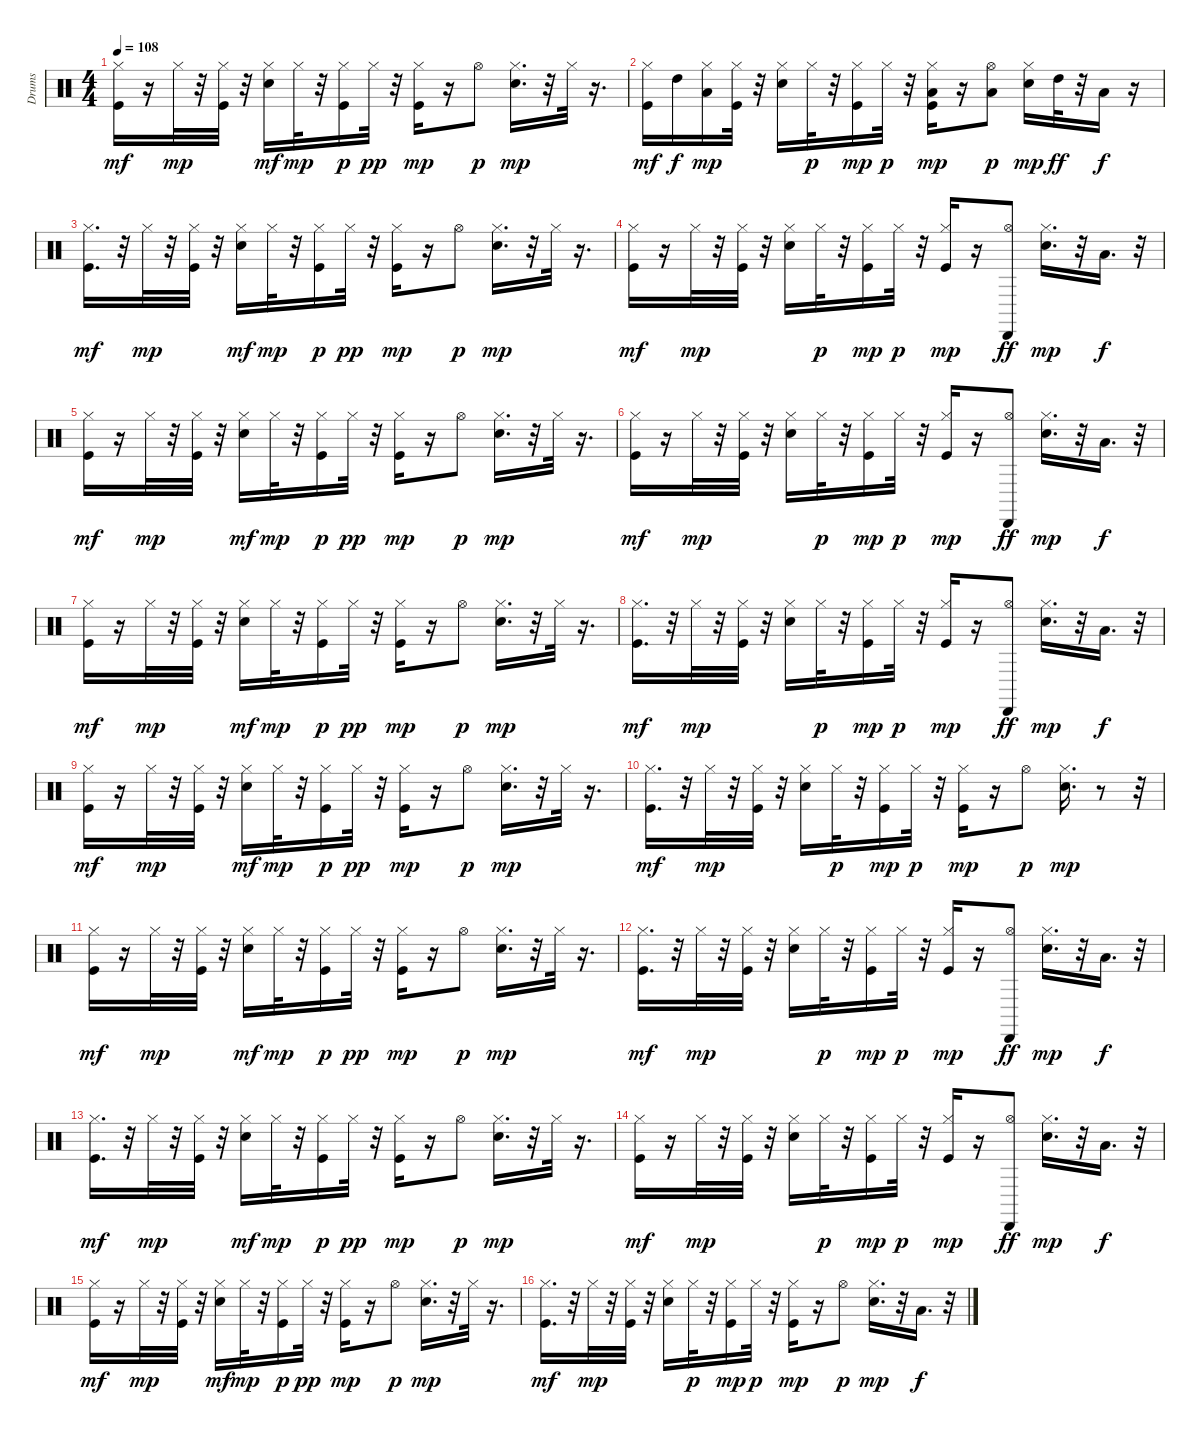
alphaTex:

\track ("Drums" "Drums") {instrument percussion}
\staff {score}
\articulation defaults
\ts (4 4)
\tempo 108
\clef neutral
\ks c
("Hi-Hat (closed)" "Kick (hit)").16{dy mf} r.16 "Hi-Hat (closed)".32{dy mp} r.32 ("Hi-Hat (closed)" "Kick (hit)").32 r.32 ("Hi-Hat (closed)" "Snare (hit) 2").16{dy mf} "Hi-Hat (closed)".32{dy mp} r.32 ("Hi-Hat (closed)" "Kick (hit)").16{dy p} "Hi-Hat (closed)".32{dy pp} r.32 ("Hi-Hat (closed)" "Kick (hit)").16{dy mp} r.16 "Hi-Hat (open)".8{dy p} ("Hi-Hat (closed)" "Snare (hit) 2").16{d dy mp} r.32 "Hi-Hat (closed)".32 r.16{d} |
("Hi-Hat (closed)" "Kick (hit)").16{dy mf} "High Tom (hit)".16{dy f} ("Hi-Hat (closed)" "Low Tom (hit)").16{dy mp} ("Hi-Hat (closed)" "Kick (hit)").32 r.32 ("Hi-Hat (closed)" "Snare (hit) 2").16 "Hi-Hat (closed)".32{dy p} r.32 ("Hi-Hat (closed)" "Kick (hit)").16{dy mp} "Hi-Hat (closed)".32{dy p} r.32 ("Hi-Hat (closed)" "Low Tom (hit)" "Kick (hit)").16{dy mp} r.16 ("Hi-Hat (open)" "Low Tom (hit)").8{dy p} ("Snare (hit) 2" "Hi-Hat (closed)").16{dy mp} "High Tom (hit)".32{dy ff} r.32 "Low Tom (hit)".16{dy f} r.16 |
("Hi-Hat (closed)" "Kick (hit)").16{d dy mf} r.32 "Hi-Hat (closed)".32{dy mp} r.32 ("Hi-Hat (closed)" "Kick (hit)").32 r.32 ("Hi-Hat (closed)" "Snare (hit) 2").16{dy mf} "Hi-Hat (closed)".32{dy mp} r.32 ("Hi-Hat (closed)" "Kick (hit)").16{dy p} "Hi-Hat (closed)".32{dy pp} r.32 ("Hi-Hat (closed)" "Kick (hit)").16{dy mp} r.16 "Hi-Hat (open)".8{dy p} ("Hi-Hat (closed)" "Snare (hit) 2").16{d dy mp} r.32 "Hi-Hat (closed)".32 r.16{d} |
("Hi-Hat (closed)" "Kick (hit)").16{dy mf} r.16 "Hi-Hat (closed)".32{dy mp} r.32 ("Hi-Hat (closed)" "Kick (hit)").32 r.32 ("Hi-Hat (closed)" "Snare (hit) 2").16 "Hi-Hat (closed)".32{dy p} r.32 ("Hi-Hat (closed)" "Kick (hit)").16{dy mp} "Hi-Hat (closed)".32{dy p} r.32 ("Hi-Hat (closed)" "Kick (hit)").16{dy mp} r.16 ("Hi-Hat (open)" "Cabasa (hit)").8{dy ff} ("Hi-Hat (closed)" "Snare (hit) 2").16{d dy mp} r.32 "Low Floor Tom (hit)".16{d dy f} r.32 |
("Hi-Hat (closed)" "Kick (hit)").16{dy mf} r.16 "Hi-Hat (closed)".32{dy mp} r.32 ("Hi-Hat (closed)" "Kick (hit)").32 r.32 ("Hi-Hat (closed)" "Snare (hit) 2").16{dy mf} "Hi-Hat (closed)".32{dy mp} r.32 ("Hi-Hat (closed)" "Kick (hit)").16{dy p} "Hi-Hat (closed)".32{dy pp} r.32 ("Hi-Hat (closed)" "Kick (hit)").16{dy mp} r.16 "Hi-Hat (open)".8{dy p} ("Hi-Hat (closed)" "Snare (hit) 2").16{d dy mp} r.32 "Hi-Hat (closed)".32 r.16{d} |
("Hi-Hat (closed)" "Kick (hit)").16{dy mf} r.16 "Hi-Hat (closed)".32{dy mp} r.32 ("Hi-Hat (closed)" "Kick (hit)").32 r.32 ("Hi-Hat (closed)" "Snare (hit) 2").16 "Hi-Hat (closed)".32{dy p} r.32 ("Hi-Hat (closed)" "Kick (hit)").16{dy mp} "Hi-Hat (closed)".32{dy p} r.32 ("Hi-Hat (closed)" "Kick (hit)").16{dy mp} r.16 ("Hi-Hat (open)" "Cabasa (hit)").8{dy ff} ("Hi-Hat (closed)" "Snare (hit) 2").16{d dy mp} r.32 "Low Floor Tom (hit)".16{d dy f} r.32 |
("Hi-Hat (closed)" "Kick (hit)").16{dy mf} r.16 "Hi-Hat (closed)".32{dy mp} r.32 ("Hi-Hat (closed)" "Kick (hit)").32 r.32 ("Hi-Hat (closed)" "Snare (hit) 2").16{dy mf} "Hi-Hat (closed)".32{dy mp} r.32 ("Hi-Hat (closed)" "Kick (hit)").16{dy p} "Hi-Hat (closed)".32{dy pp} r.32 ("Hi-Hat (closed)" "Kick (hit)").16{dy mp} r.16 "Hi-Hat (open)".8{dy p} ("Hi-Hat (closed)" "Snare (hit) 2").16{d dy mp} r.32 "Hi-Hat (closed)".32 r.16{d} |
("Hi-Hat (closed)" "Kick (hit)").16{d dy mf} r.32 "Hi-Hat (closed)".32{dy mp} r.32 ("Hi-Hat (closed)" "Kick (hit)").32 r.32 ("Hi-Hat (closed)" "Snare (hit) 2").16 "Hi-Hat (closed)".32{dy p} r.32 ("Hi-Hat (closed)" "Kick (hit)").16{dy mp} "Hi-Hat (closed)".32{dy p} r.32 ("Hi-Hat (closed)" "Kick (hit)").16{dy mp} r.16 ("Hi-Hat (open)" "Cabasa (hit)").8{dy ff} ("Hi-Hat (closed)" "Snare (hit) 2").16{d dy mp} r.32 "Low Floor Tom (hit)".16{d dy f} r.32 |
("Hi-Hat (closed)" "Kick (hit)").16{dy mf} r.16 "Hi-Hat (closed)".32{dy mp} r.32 ("Hi-Hat (closed)" "Kick (hit)").32 r.32 ("Hi-Hat (closed)" "Snare (hit) 2").16{dy mf} "Hi-Hat (closed)".32{dy mp} r.32 ("Hi-Hat (closed)" "Kick (hit)").16{dy p} "Hi-Hat (closed)".32{dy pp} r.32 ("Hi-Hat (closed)" "Kick (hit)").16{dy mp} r.16 "Hi-Hat (open)".8{dy p} ("Hi-Hat (closed)" "Snare (hit) 2").16{d dy mp} r.32 "Hi-Hat (closed)".32 r.16{d} |
("Hi-Hat (closed)" "Kick (hit)").16{d dy mf} r.32 "Hi-Hat (closed)".32{dy mp} r.32 ("Hi-Hat (closed)" "Kick (hit)").32 r.32 ("Hi-Hat (closed)" "Snare (hit) 2").16 "Hi-Hat (closed)".32{dy p} r.32 ("Hi-Hat (closed)" "Kick (hit)").16{dy mp} "Hi-Hat (closed)".32{dy p} r.32 ("Hi-Hat (closed)" "Kick (hit)").16{dy mp} r.16 "Hi-Hat (open)".8{dy p} ("Hi-Hat (closed)" "Snare (hit) 2").16{d dy mp} r.8 r.32 |
("Hi-Hat (closed)" "Kick (hit)").16{dy mf} r.16 "Hi-Hat (closed)".32{dy mp} r.32 ("Hi-Hat (closed)" "Kick (hit)").32 r.32 ("Hi-Hat (closed)" "Snare (hit) 2").16{dy mf} "Hi-Hat (closed)".32{dy mp} r.32 ("Hi-Hat (closed)" "Kick (hit)").16{dy p} "Hi-Hat (closed)".32{dy pp} r.32 ("Hi-Hat (closed)" "Kick (hit)").16{dy mp} r.16 "Hi-Hat (open)".8{dy p} ("Hi-Hat (closed)" "Snare (hit) 2").16{d dy mp} r.32 "Hi-Hat (closed)".32 r.16{d} |
("Hi-Hat (closed)" "Kick (hit)").16{d dy mf} r.32 "Hi-Hat (closed)".32{dy mp} r.32 ("Hi-Hat (closed)" "Kick (hit)").32 r.32 ("Hi-Hat (closed)" "Snare (hit) 2").16 "Hi-Hat (closed)".32{dy p} r.32 ("Hi-Hat (closed)" "Kick (hit)").16{dy mp} "Hi-Hat (closed)".32{dy p} r.32 ("Hi-Hat (closed)" "Kick (hit)").16{dy mp} r.16 ("Hi-Hat (open)" "Cabasa (hit)").8{dy ff} ("Hi-Hat (closed)" "Snare (hit) 2").16{d dy mp} r.32 "Low Floor Tom (hit)".16{d dy f} r.32 |
("Hi-Hat (closed)" "Kick (hit)").16{d dy mf} r.32 "Hi-Hat (closed)".32{dy mp} r.32 ("Hi-Hat (closed)" "Kick (hit)").32 r.32 ("Hi-Hat (closed)" "Snare (hit) 2").16{dy mf} "Hi-Hat (closed)".32{dy mp} r.32 ("Hi-Hat (closed)" "Kick (hit)").16{dy p} "Hi-Hat (closed)".32{dy pp} r.32 ("Hi-Hat (closed)" "Kick (hit)").16{dy mp} r.16 "Hi-Hat (open)".8{dy p} ("Hi-Hat (closed)" "Snare (hit) 2").16{d dy mp} r.32 "Hi-Hat (closed)".32 r.16{d} |
("Hi-Hat (closed)" "Kick (hit)").16{dy mf} r.16 "Hi-Hat (closed)".32{dy mp} r.32 ("Hi-Hat (closed)" "Kick (hit)").32 r.32 ("Hi-Hat (closed)" "Snare (hit) 2").16 "Hi-Hat (closed)".32{dy p} r.32 ("Hi-Hat (closed)" "Kick (hit)").16{dy mp} "Hi-Hat (closed)".32{dy p} r.32 ("Hi-Hat (closed)" "Kick (hit)").16{dy mp} r.16 ("Hi-Hat (open)" "Cabasa (hit)").8{dy ff} ("Hi-Hat (closed)" "Snare (hit) 2").16{d dy mp} r.32 "Low Floor Tom (hit)".16{d dy f} r.32 |
("Hi-Hat (closed)" "Kick (hit)").16{dy mf} r.16 "Hi-Hat (closed)".32{dy mp} r.32 ("Hi-Hat (closed)" "Kick (hit)").32 r.32 ("Hi-Hat (closed)" "Snare (hit) 2").16{dy mf} "Hi-Hat (closed)".32{dy mp} r.32 ("Hi-Hat (closed)" "Kick (hit)").16{dy p} "Hi-Hat (closed)".32{dy pp} r.32 ("Hi-Hat (closed)" "Kick (hit)").16{dy mp} r.16 "Hi-Hat (open)".8{dy p} ("Hi-Hat (closed)" "Snare (hit) 2").16{d dy mp} r.32 "Hi-Hat (closed)".32 r.16{d} |
("Hi-Hat (closed)" "Kick (hit)").16{d dy mf} r.32 "Hi-Hat (closed)".32{dy mp} r.32 ("Hi-Hat (closed)" "Kick (hit)").32 r.32 ("Hi-Hat (closed)" "Snare (hit) 2").16 "Hi-Hat (closed)".32{dy p} r.32 ("Hi-Hat (closed)" "Kick (hit)").16{dy mp} "Hi-Hat (closed)".32{dy p} r.32 ("Hi-Hat (closed)" "Kick (hit)").16{dy mp} r.16 "Hi-Hat (open)".8{dy p} ("Hi-Hat (closed)" "Snare (hit) 2").16{d dy mp} r.32 "Low Floor Tom (hit)".16{d dy f} r.32
